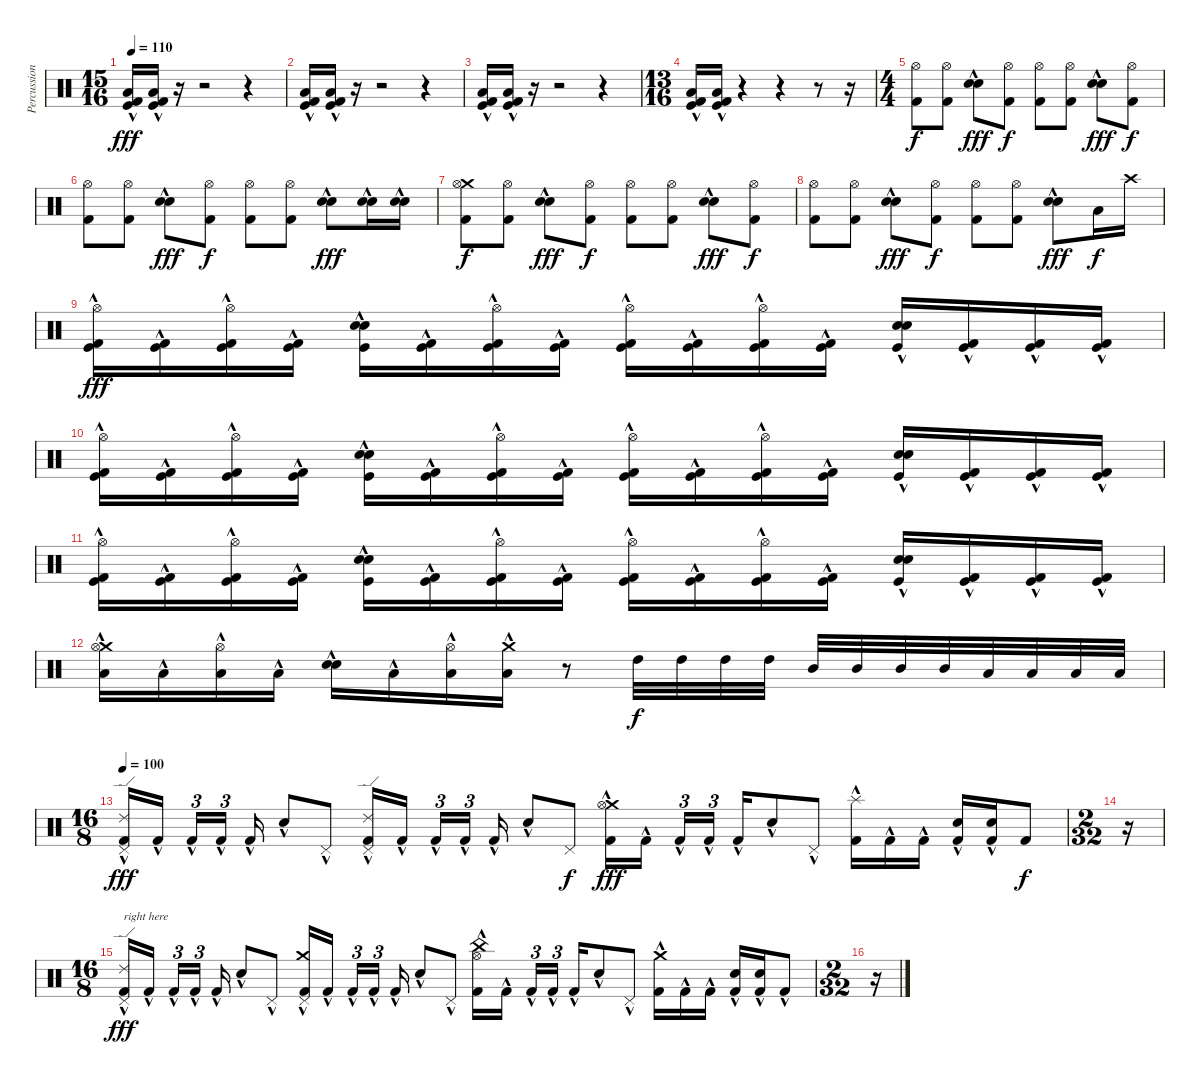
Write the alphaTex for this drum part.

\track ("Percussion" "Percussion") {instrument percussion}
\staff {score}
\articulation defaults
\ts (15 16)
\tempo 110
\clef neutral
\ks c
("Low Tom (hit)"{hac} "Kick (hit)"{hac} "Kick (hit) 2"{hac}).16{dy fff} ("Low Tom (hit)"{hac} "Kick (hit)"{hac} "Kick (hit) 2"{hac}).16 r.16 r.2 r.4 |
("Low Tom (hit)"{hac} "Kick (hit)"{hac} "Kick (hit) 2"{hac}).16 ("Low Tom (hit)"{hac} "Kick (hit)"{hac} "Kick (hit) 2"{hac}).16 r.16 r.2 r.4 |
("Low Tom (hit)"{hac} "Kick (hit)"{hac} "Kick (hit) 2"{hac}).16 ("Low Tom (hit)"{hac} "Kick (hit)"{hac} "Kick (hit) 2"{hac}).16 r.16 r.2 r.4 |
\ts (13 16)
("Low Tom (hit)"{hac} "Kick (hit) 2"{hac} "Kick (hit)"{hac}).16 ("Low Tom (hit)"{hac} "Kick (hit) 2"{hac} "Kick (hit)"{hac}).16 r.4 r.4 r.8 r.16 |
\ts (4 4)
("Hi-Hat (open)" "Kick (hit) 2").8{dy f} ("Hi-Hat (open)" "Kick (hit) 2").8 ("Snare (hit) 2"{hac} "Electric Snare (hit)"{hac}).8{dy fff} ("Hi-Hat (open)" "Kick (hit) 2").8{dy f} ("Hi-Hat (open)" "Kick (hit) 2").8 ("Hi-Hat (open)" "Kick (hit) 2").8 ("Snare (hit) 2"{hac} "Electric Snare (hit)"{hac}).8{dy fff} ("Hi-Hat (open)" "Kick (hit) 2").8{dy f} |
("Hi-Hat (open)" "Kick (hit) 2").8 ("Hi-Hat (open)" "Kick (hit) 2").8 ("Snare (hit) 2"{hac} "Electric Snare (hit)"{hac}).8{dy fff} ("Hi-Hat (open)" "Kick (hit) 2").8{dy f} ("Hi-Hat (open)" "Kick (hit) 2").8 ("Hi-Hat (open)" "Kick (hit) 2").8 ("Snare (hit) 2"{hac} "Electric Snare (hit)"{hac}).8{dy fff} ("Snare (hit) 2"{hac} "Electric Snare (hit)"{hac}).16 ("Snare (hit) 2"{hac} "Electric Snare (hit)"{hac}).16 |
("Crash medium (hit)" "Hi-Hat (open)" "Kick (hit) 2").8{dy f} ("Hi-Hat (open)" "Kick (hit) 2").8 ("Snare (hit) 2"{hac} "Electric Snare (hit)"{hac}).8{dy fff} ("Hi-Hat (open)" "Kick (hit) 2").8{dy f} ("Hi-Hat (open)" "Kick (hit) 2").8 ("Hi-Hat (open)" "Kick (hit) 2").8 ("Snare (hit) 2"{hac} "Electric Snare (hit)"{hac}).8{dy fff} ("Hi-Hat (open)" "Kick (hit) 2").8{dy f} |
("Hi-Hat (open)" "Kick (hit) 2").8 ("Hi-Hat (open)" "Kick (hit) 2").8 ("Snare (hit) 2"{hac} "Electric Snare (hit)"{hac}).8{dy fff} ("Hi-Hat (open)" "Kick (hit) 2").8{dy f} ("Hi-Hat (open)" "Kick (hit) 2").8 ("Hi-Hat (open)" "Kick (hit) 2").8 ("Snare (hit) 2"{hac} "Electric Snare (hit)"{hac}).8{dy fff} "Low Tom (hit)".16{dy f} "Crash high (hit)".16 |
("Hi-Hat (open)" "Kick (hit) 2" "Kick (hit)"{hac}).16{dy fff} ("Kick (hit) 2" "Kick (hit)"{hac}).16 ("Hi-Hat (open)" "Kick (hit) 2" "Kick (hit)"{hac}).16 ("Kick (hit) 2" "Kick (hit)"{hac}).16 ("Snare (hit) 2"{hac} "Snare (hit) 2" "Kick (hit)"{hac}).16 ("Kick (hit) 2" "Kick (hit)"{hac}).16 ("Hi-Hat (open)" "Kick (hit) 2" "Kick (hit)"{hac}).16 ("Kick (hit) 2" "Kick (hit)"{hac}).16 ("Hi-Hat (open)" "Kick (hit) 2" "Kick (hit)"{hac}).16 ("Kick (hit) 2" "Kick (hit)"{hac}).16 ("Hi-Hat (open)" "Kick (hit) 2" "Kick (hit)"{hac}).16 ("Kick (hit) 2" "Kick (hit)"{hac}).16 ("Electric Snare (hit)"{hac} "Snare (hit) 2" "Kick (hit)"{hac}).16 ("Kick (hit) 2" "Kick (hit)"{hac}).16 ("Kick (hit) 2" "Kick (hit)"{hac}).16 ("Kick (hit) 2" "Kick (hit)"{hac}).16 |
("Hi-Hat (open)" "Kick (hit) 2" "Kick (hit)"{hac}).16 ("Kick (hit) 2" "Kick (hit)"{hac}).16 ("Hi-Hat (open)" "Kick (hit) 2" "Kick (hit)"{hac}).16 ("Kick (hit) 2" "Kick (hit)"{hac}).16 ("Snare (hit) 2"{hac} "Snare (hit) 2" "Kick (hit)"{hac}).16 ("Kick (hit) 2" "Kick (hit)"{hac}).16 ("Hi-Hat (open)" "Kick (hit) 2" "Kick (hit)"{hac}).16 ("Kick (hit) 2" "Kick (hit)"{hac}).16 ("Hi-Hat (open)" "Kick (hit) 2" "Kick (hit)"{hac}).16 ("Kick (hit) 2" "Kick (hit)"{hac}).16 ("Hi-Hat (open)" "Kick (hit) 2" "Kick (hit)"{hac}).16 ("Kick (hit) 2" "Kick (hit)"{hac}).16 ("Electric Snare (hit)"{hac} "Snare (hit) 2" "Kick (hit)"{hac}).16 ("Kick (hit) 2" "Kick (hit)"{hac}).16 ("Kick (hit) 2" "Kick (hit)"{hac}).16 ("Kick (hit) 2" "Kick (hit)"{hac}).16 |
("Hi-Hat (open)" "Kick (hit) 2" "Kick (hit)"{hac}).16 ("Kick (hit) 2" "Kick (hit)"{hac}).16 ("Hi-Hat (open)" "Kick (hit) 2" "Kick (hit)"{hac}).16 ("Kick (hit) 2" "Kick (hit)"{hac}).16 ("Snare (hit) 2"{hac} "Snare (hit) 2" "Kick (hit)"{hac}).16 ("Kick (hit) 2" "Kick (hit)"{hac}).16 ("Hi-Hat (open)" "Kick (hit) 2" "Kick (hit)"{hac}).16 ("Kick (hit) 2" "Kick (hit)"{hac}).16 ("Hi-Hat (open)" "Kick (hit) 2" "Kick (hit)"{hac}).16 ("Kick (hit) 2" "Kick (hit)"{hac}).16 ("Hi-Hat (open)" "Kick (hit) 2" "Kick (hit)"{hac}).16 ("Kick (hit) 2" "Kick (hit)"{hac}).16 ("Electric Snare (hit)"{hac} "Snare (hit) 2" "Kick (hit)"{hac}).16 ("Kick (hit) 2" "Kick (hit)"{hac}).16 ("Kick (hit) 2" "Kick (hit)"{hac}).16 ("Kick (hit) 2" "Kick (hit)"{hac}).16 |
("Crash medium (hit)" "Hi-Hat (open)" "Low Tom (hit)"{hac}).16 "Low Tom (hit)"{hac}.16 ("Hi-Hat (open)" "Low Tom (hit)"{hac}).16 "Low Tom (hit)"{hac}.16 ("Snare (hit) 2"{hac} "Electric Snare (hit)"{hac}).16 "Low Tom (hit)"{hac}.16 ("Hi-Hat (open)" "Low Tom (hit)"{hac}).16 ("Crash medium (hit)" "Low Tom (hit)"{hac}).16 r.8 "High Tom (hit)".32{dy f} "High Tom (hit)".32 "High Tom (hit)".32 "High Tom (hit)".32 "Mid Tom (hit)".32 "Mid Tom (hit)".32 "Mid Tom (hit)".32 "Mid Tom (hit)".32 "Low Tom (hit)".32 "Low Tom (hit)".32 "Low Tom (hit)".32 "Low Tom (hit)".32 |
\ts (16 8)
\tempo 100
("Ride (edge) 2"{hac} "Pedal Hi-Hat (hit)"{hac} "Kick (hit) 2"{hac}).16{dy fff} "Kick (hit) 2"{hac}.16 "Kick (hit) 2"{hac}.16{tu (3 2)} "Kick (hit) 2"{hac}.16{tu (3 2) beam splitsecondary} "Kick (hit) 2"{hac}.16 "Snare (hit) 2"{hac}.8 "Pedal Hi-Hat (hit)"{hac}.8 ("Ride (edge) 2"{hac} "Pedal Hi-Hat (hit)"{hac} "Kick (hit) 2"{hac}).16 "Kick (hit) 2"{hac}.16 "Kick (hit) 2"{hac}.16{tu (3 2)} "Kick (hit) 2"{hac}.16{tu (3 2) beam splitsecondary} "Kick (hit) 2"{hac}.16 "Snare (hit) 2"{hac}.8 "Pedal Hi-Hat (hit)".8{dy f} ("Crash medium (hit)"{hac} "Hi-Hat (open)"{hac} "Kick (hit) 2"{hac}).16{dy fff} "Kick (hit) 2"{hac}.16 "Kick (hit) 2"{hac}.16{tu (3 2)} "Kick (hit) 2"{hac}.16{tu (3 2)} "Kick (hit) 2"{hac}.16 "Snare (hit) 2"{hac}.8 "Pedal Hi-Hat (hit)"{hac}.8 ("Splash (hit)"{hac} "Kick (hit) 2"{hac}).16 "Kick (hit) 2"{hac}.16 "Kick (hit) 2"{hac}.16 ("Snare (hit) 2"{hac} "Kick (hit) 2"{hac}).16 ("Snare (hit) 2"{hac} "Kick (hit) 2"{hac}).16 "Kick (hit) 2".8{dy f} |
\ts (2 32)
r.16 |
\ts (16 8)
("Ride (edge) 2"{hac} "Pedal Hi-Hat (hit)"{hac} "Kick (hit) 2"{hac}).16{txt "right here" dy fff} "Kick (hit) 2"{hac}.16 "Kick (hit) 2"{hac}.16{tu (3 2)} "Kick (hit) 2"{hac}.16{tu (3 2) beam splitsecondary} "Kick (hit) 2"{hac}.16 "Snare (hit) 2"{hac}.8 "Pedal Hi-Hat (hit)"{hac}.8 ("Crash medium (hit)"{hac} "Pedal Hi-Hat (hit)"{hac} "Kick (hit) 2"{hac}).16 "Kick (hit) 2"{hac}.16 "Kick (hit) 2"{hac}.16{tu (3 2)} "Kick (hit) 2"{hac}.16{tu (3 2) beam splitsecondary} "Kick (hit) 2"{hac}.16 "Snare (hit) 2"{hac}.8 "Pedal Hi-Hat (hit)"{hac}.8 ("China (hit)"{hac} "Hi-Hat (open)"{hac} "Kick (hit) 2"{hac}).16 "Kick (hit) 2"{hac}.16 "Kick (hit) 2"{hac}.16{tu (3 2)} "Kick (hit) 2"{hac}.16{tu (3 2)} "Kick (hit) 2"{hac}.16 "Snare (hit) 2"{hac}.8 "Pedal Hi-Hat (hit)"{hac}.8 ("Crash medium (hit)"{hac} "Kick (hit) 2"{hac}).16 "Kick (hit) 2"{hac}.16 "Kick (hit) 2"{hac}.16 ("Snare (hit) 2"{hac} "Kick (hit) 2"{hac}).16 ("Snare (hit) 2"{hac} "Kick (hit) 2"{hac}).16 "Kick (hit) 2"{hac}.8 |
\ts (2 32)
r.16
